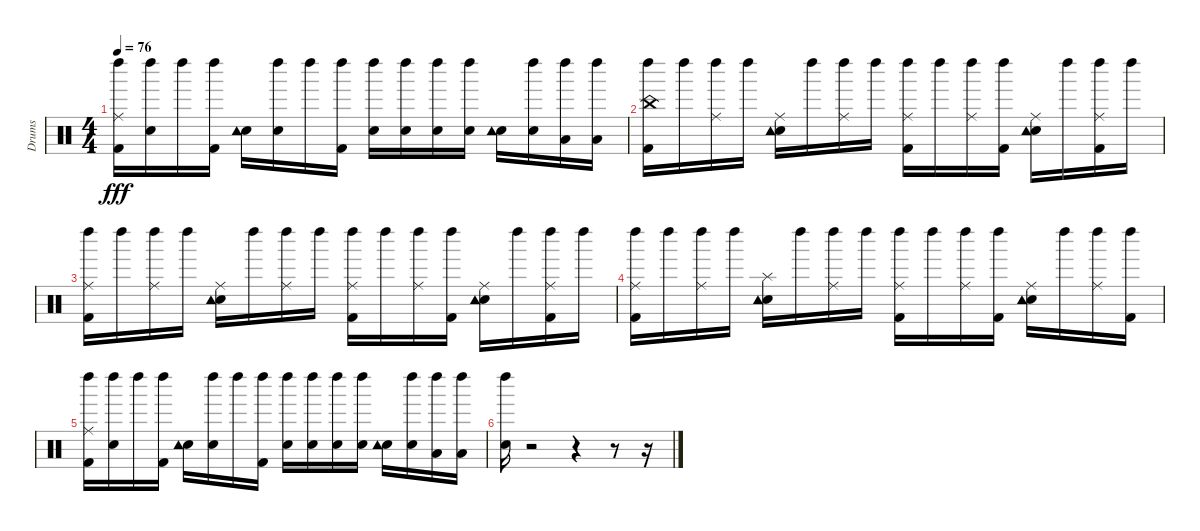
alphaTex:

\track ("Drums" "Drums") {instrument percussion}
\staff {score}
\articulation defaults
\ts (4 4)
\tempo 76
\clef neutral
\ks c
("Kick (hit) 2" "Ride (middle)" "Left Maraca (hit)").16{dy fff} ("Electric Snare (hit)" "Left Maraca (hit)").16 "Left Maraca (hit)".16 ("Kick (hit) 2" "Left Maraca (hit)").16 ("Electric Snare (hit)" "Tambourine (hit)").16 ("Electric Snare (hit)" "Left Maraca (hit)").16 "Left Maraca (hit)".16 ("Kick (hit) 2" "Left Maraca (hit)").16 ("Electric Snare (hit)" "Left Maraca (hit)").16 ("Electric Snare (hit)" "Left Maraca (hit)").16 ("Electric Snare (hit)" "Left Maraca (hit)").16 ("Electric Snare (hit)" "Left Maraca (hit)").16 ("Electric Snare (hit)" "Tambourine (hit)").16 ("Electric Snare (hit)" "Left Maraca (hit)").16 ("Low Floor Tom (hit)" "Left Maraca (hit)").16 ("Low Floor Tom (hit)" "Left Maraca (hit)").16 |
("Kick (hit) 2" "China (hit)" "Left Maraca (hit)").16 "Left Maraca (hit)".16 ("Ride (middle)" "Left Maraca (hit)").16 "Left Maraca (hit)".16 ("Electric Snare (hit)" "Ride (middle)" "Tambourine (hit)").16 "Left Maraca (hit)".16 ("Ride (middle)" "Left Maraca (hit)").16 "Left Maraca (hit)".16 ("Kick (hit) 2" "Ride (middle)" "Left Maraca (hit)").16 "Left Maraca (hit)".16 ("Ride (middle)" "Left Maraca (hit)").16 ("Kick (hit) 2" "Left Maraca (hit)").16 ("Electric Snare (hit)" "Ride (middle)" "Tambourine (hit)").16 "Left Maraca (hit)".16 ("Kick (hit) 2" "Ride (middle)" "Left Maraca (hit)").16 "Left Maraca (hit)".16 |
("Kick (hit) 2" "Ride (middle)" "Left Maraca (hit)").16{volume 8} "Left Maraca (hit)".16 ("Ride (middle)" "Left Maraca (hit)").16 "Left Maraca (hit)".16 ("Electric Snare (hit)" "Ride (middle)" "Tambourine (hit)").16 "Left Maraca (hit)".16 ("Ride (middle)" "Left Maraca (hit)").16 "Left Maraca (hit)".16 ("Kick (hit) 2" "Ride (middle)" "Left Maraca (hit)").16 "Left Maraca (hit)".16 ("Ride (middle)" "Left Maraca (hit)").16 ("Kick (hit) 2" "Left Maraca (hit)").16 ("Electric Snare (hit)" "Ride (middle)" "Tambourine (hit)").16 "Left Maraca (hit)".16 ("Kick (hit) 2" "Ride (middle)" "Left Maraca (hit)").16 "Left Maraca (hit)".16 |
("Kick (hit) 2" "Ride (middle)" "Left Maraca (hit)").16 "Left Maraca (hit)".16 ("Ride (middle)" "Left Maraca (hit)").16 "Left Maraca (hit)".16 ("Electric Snare (hit)" "Splash (hit)" "Tambourine (hit)").16 "Left Maraca (hit)".16 ("Ride (middle)" "Left Maraca (hit)").16 "Left Maraca (hit)".16 ("Kick (hit) 2" "Ride (middle)" "Left Maraca (hit)").16 "Left Maraca (hit)".16 ("Ride (middle)" "Left Maraca (hit)").16 ("Kick (hit) 2" "Left Maraca (hit)").16 ("Electric Snare (hit)" "Ride (middle)" "Tambourine (hit)").16 "Left Maraca (hit)".16 ("Ride (middle)" "Left Maraca (hit)").16 ("Kick (hit) 2" "Left Maraca (hit)").16 |
("Kick (hit) 2" "Ride (middle)" "Left Maraca (hit)").16 ("Electric Snare (hit)" "Left Maraca (hit)").16 "Left Maraca (hit)".16 ("Kick (hit) 2" "Left Maraca (hit)").16 ("Electric Snare (hit)" "Tambourine (hit)").16 ("Electric Snare (hit)" "Left Maraca (hit)").16 "Left Maraca (hit)".16 ("Kick (hit) 2" "Left Maraca (hit)").16 ("Electric Snare (hit)" "Left Maraca (hit)").16 ("Electric Snare (hit)" "Left Maraca (hit)").16 ("Electric Snare (hit)" "Left Maraca (hit)").16 ("Electric Snare (hit)" "Left Maraca (hit)").16 ("Electric Snare (hit)" "Tambourine (hit)").16 ("Electric Snare (hit)" "Left Maraca (hit)").16 ("Low Floor Tom (hit)" "Left Maraca (hit)").16 ("Low Floor Tom (hit)" "Left Maraca (hit)").16 |
("Electric Snare (hit)" "Left Maraca (hit)").16 r.2 r.4 r.8 r.16
